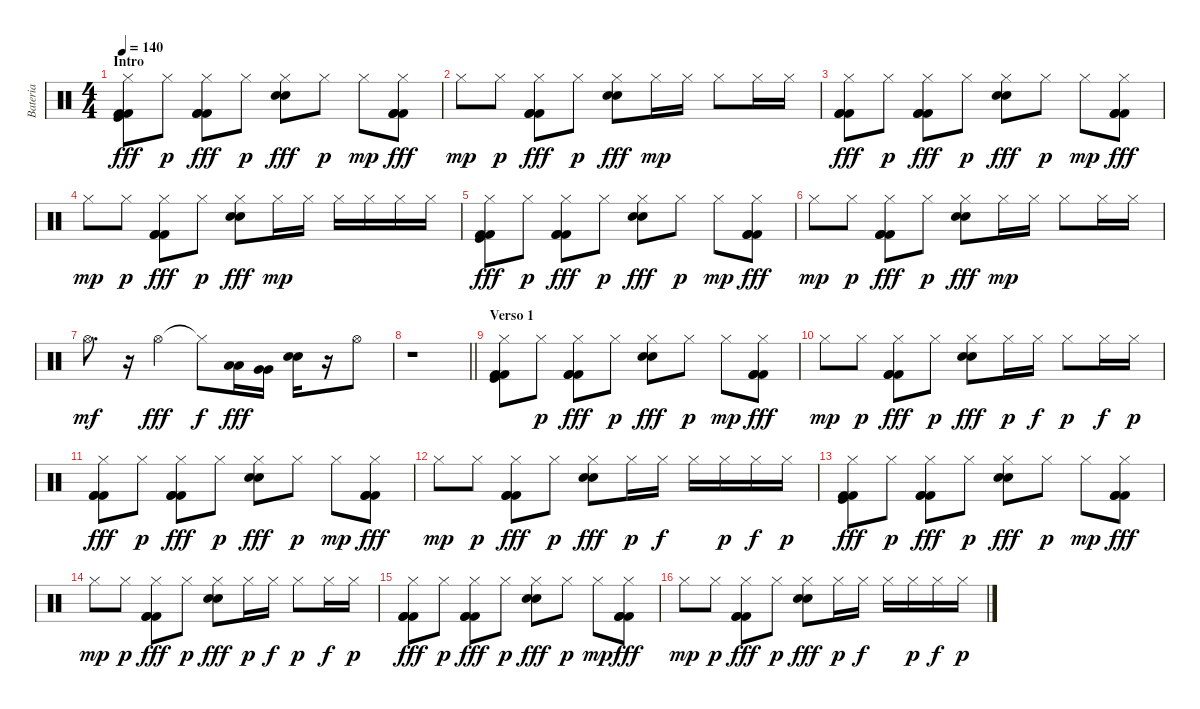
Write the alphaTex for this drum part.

\track ("Bateria" "Bateria") {instrument percussion}
\staff {score}
\articulation defaults
\ts (4 4)
\section ("" "Intro")
\tempo 140
\clef neutral
\ks c
("Hi-Hat (closed)" "Kick (hit) 2" "Kick (hit) 2" "Kick (hit)").8{dy fff} "Hi-Hat (closed)".8{dy p} ("Hi-Hat (closed)" "Kick (hit) 2" "Kick (hit) 2" "Kick (hit) 2").8{dy fff} "Hi-Hat (closed)".8{dy p} ("Hi-Hat (closed)" "Snare (hit) 2" "Snare (hit) 2").8{dy fff} "Hi-Hat (closed)".8{dy p} "Hi-Hat (closed)".8{dy mp} ("Hi-Hat (closed)" "Kick (hit) 2" "Kick (hit) 2" "Kick (hit) 2").8{dy fff} |
"Hi-Hat (closed)".8{dy mp} "Hi-Hat (closed)".8{dy p} ("Hi-Hat (closed)" "Kick (hit) 2" "Kick (hit) 2" "Kick (hit) 2").8{dy fff} "Hi-Hat (closed)".8{dy p} ("Hi-Hat (closed)" "Snare (hit) 2" "Snare (hit) 2").8{dy fff} "Hi-Hat (closed)".16{dy mp} "Hi-Hat (closed)".16 "Hi-Hat (closed)".8 "Hi-Hat (closed)".16 "Hi-Hat (closed)".16 |
("Hi-Hat (closed)" "Kick (hit) 2" "Kick (hit) 2" "Kick (hit) 2").8{dy fff} "Hi-Hat (closed)".8{dy p} ("Hi-Hat (closed)" "Kick (hit) 2" "Kick (hit) 2" "Kick (hit) 2").8{dy fff} "Hi-Hat (closed)".8{dy p} ("Hi-Hat (closed)" "Snare (hit) 2" "Snare (hit) 2").8{dy fff} "Hi-Hat (closed)".8{dy p} "Hi-Hat (closed)".8{dy mp} ("Hi-Hat (closed)" "Kick (hit) 2" "Kick (hit) 2" "Kick (hit) 2").8{dy fff} |
"Hi-Hat (closed)".8{dy mp} "Hi-Hat (closed)".8{dy p} ("Hi-Hat (closed)" "Kick (hit) 2" "Kick (hit) 2" "Kick (hit) 2").8{dy fff} "Hi-Hat (closed)".8{dy p} ("Hi-Hat (closed)" "Snare (hit) 2" "Snare (hit) 2").8{dy fff} "Hi-Hat (closed)".16{dy mp} "Hi-Hat (closed)".16 "Hi-Hat (closed)".16 "Hi-Hat (closed)".16 "Hi-Hat (closed)".16 "Hi-Hat (closed)".16 |
("Hi-Hat (closed)" "Kick (hit) 2" "Kick (hit) 2" "Kick (hit)").8{dy fff} "Hi-Hat (closed)".8{dy p} ("Hi-Hat (closed)" "Kick (hit) 2" "Kick (hit) 2" "Kick (hit) 2").8{dy fff} "Hi-Hat (closed)".8{dy p} ("Hi-Hat (closed)" "Snare (hit) 2" "Snare (hit) 2").8{dy fff} "Hi-Hat (closed)".8{dy p} "Hi-Hat (closed)".8{dy mp} ("Hi-Hat (closed)" "Kick (hit) 2" "Kick (hit) 2" "Kick (hit) 2").8{dy fff} |
"Hi-Hat (closed)".8{dy mp} "Hi-Hat (closed)".8{dy p} ("Hi-Hat (closed)" "Kick (hit) 2" "Kick (hit) 2" "Kick (hit) 2").8{dy fff} "Hi-Hat (closed)".8{dy p} ("Hi-Hat (closed)" "Snare (hit) 2" "Snare (hit) 2").8{dy fff} "Hi-Hat (closed)".16{dy mp} "Hi-Hat (closed)".16 "Hi-Hat (closed)".8 "Hi-Hat (closed)".16 "Hi-Hat (closed)".16 |
"Hi-Hat (open)".8{d dy mf} r.16 "Hi-Hat (open)".4{dy fff} "Hi-Hat (closed)"{t}.8{dy f} ("Low Tom (hit)" "Low Tom (hit)").16{dy fff} ("Very Low Tom (hit)" "Very Low Tom (hit)").16 ("Snare (hit) 2" "Snare (hit) 2").16 r.16 "Hi-Hat (open)".8 |
\barLineRight lightlight
r.1 |
\section ("" "Verso 1")
("Hi-Hat (closed)" "Kick (hit) 2" "Kick (hit) 2" "Kick (hit)").8 "Hi-Hat (closed)".8{dy p} ("Hi-Hat (closed)" "Kick (hit) 2" "Kick (hit) 2" "Kick (hit) 2").8{dy fff} "Hi-Hat (closed)".8{dy p} ("Hi-Hat (closed)" "Snare (hit) 2" "Snare (hit) 2").8{dy fff} "Hi-Hat (closed)".8{dy p} "Hi-Hat (closed)".8{dy mp} ("Hi-Hat (closed)" "Kick (hit) 2" "Kick (hit) 2" "Kick (hit) 2").8{dy fff} |
"Hi-Hat (closed)".8{dy mp} "Hi-Hat (closed)".8{dy p} ("Hi-Hat (closed)" "Kick (hit) 2" "Kick (hit) 2" "Kick (hit) 2").8{dy fff} "Hi-Hat (closed)".8{dy p} ("Hi-Hat (closed)" "Snare (hit) 2" "Snare (hit) 2").8{dy fff} "Hi-Hat (closed)".16{dy p} "Hi-Hat (closed)".16{dy f} "Hi-Hat (closed)".8{dy p} "Hi-Hat (closed)".16{dy f} "Hi-Hat (closed)".16{dy p} |
("Hi-Hat (closed)" "Kick (hit) 2" "Kick (hit) 2" "Kick (hit) 2").8{dy fff} "Hi-Hat (closed)".8{dy p} ("Hi-Hat (closed)" "Kick (hit) 2" "Kick (hit) 2" "Kick (hit) 2").8{dy fff} "Hi-Hat (closed)".8{dy p} ("Hi-Hat (closed)" "Snare (hit) 2" "Snare (hit) 2").8{dy fff} "Hi-Hat (closed)".8{dy p} "Hi-Hat (closed)".8{dy mp} ("Hi-Hat (closed)" "Kick (hit) 2" "Kick (hit) 2" "Kick (hit) 2").8{dy fff} |
"Hi-Hat (closed)".8{dy mp} "Hi-Hat (closed)".8{dy p} ("Hi-Hat (closed)" "Kick (hit) 2" "Kick (hit) 2" "Kick (hit) 2").8{dy fff} "Hi-Hat (closed)".8{dy p} ("Hi-Hat (closed)" "Snare (hit) 2" "Snare (hit) 2").8{dy fff} "Hi-Hat (closed)".16{dy p} "Hi-Hat (closed)".16{dy f} "Hi-Hat (closed)".16 "Hi-Hat (closed)".16{dy p} "Hi-Hat (closed)".16{dy f} "Hi-Hat (closed)".16{dy p} |
("Hi-Hat (closed)" "Kick (hit) 2" "Kick (hit) 2" "Kick (hit)").8{dy fff} "Hi-Hat (closed)".8{dy p} ("Hi-Hat (closed)" "Kick (hit) 2" "Kick (hit) 2" "Kick (hit) 2").8{dy fff} "Hi-Hat (closed)".8{dy p} ("Hi-Hat (closed)" "Snare (hit) 2" "Snare (hit) 2").8{dy fff} "Hi-Hat (closed)".8{dy p} "Hi-Hat (closed)".8{dy mp} ("Hi-Hat (closed)" "Kick (hit) 2" "Kick (hit) 2" "Kick (hit) 2").8{dy fff} |
"Hi-Hat (closed)".8{dy mp} "Hi-Hat (closed)".8{dy p} ("Hi-Hat (closed)" "Kick (hit) 2" "Kick (hit) 2" "Kick (hit) 2").8{dy fff} "Hi-Hat (closed)".8{dy p} ("Hi-Hat (closed)" "Snare (hit) 2" "Snare (hit) 2").8{dy fff} "Hi-Hat (closed)".16{dy p} "Hi-Hat (closed)".16{dy f} "Hi-Hat (closed)".8{dy p} "Hi-Hat (closed)".16{dy f} "Hi-Hat (closed)".16{dy p} |
("Hi-Hat (closed)" "Kick (hit) 2" "Kick (hit) 2" "Kick (hit) 2").8{dy fff} "Hi-Hat (closed)".8{dy p} ("Hi-Hat (closed)" "Kick (hit) 2" "Kick (hit) 2" "Kick (hit) 2").8{dy fff} "Hi-Hat (closed)".8{dy p} ("Hi-Hat (closed)" "Snare (hit) 2" "Snare (hit) 2").8{dy fff} "Hi-Hat (closed)".8{dy p} "Hi-Hat (closed)".8{dy mp} ("Hi-Hat (closed)" "Kick (hit) 2" "Kick (hit) 2" "Kick (hit) 2").8{dy fff} |
"Hi-Hat (closed)".8{dy mp} "Hi-Hat (closed)".8{dy p} ("Hi-Hat (closed)" "Kick (hit) 2" "Kick (hit) 2" "Kick (hit) 2").8{dy fff} "Hi-Hat (closed)".8{dy p} ("Hi-Hat (closed)" "Snare (hit) 2" "Snare (hit) 2").8{dy fff} "Hi-Hat (closed)".16{dy p} "Hi-Hat (closed)".16{dy f} "Hi-Hat (closed)".16 "Hi-Hat (closed)".16{dy p} "Hi-Hat (closed)".16{dy f} "Hi-Hat (closed)".16{dy p}
